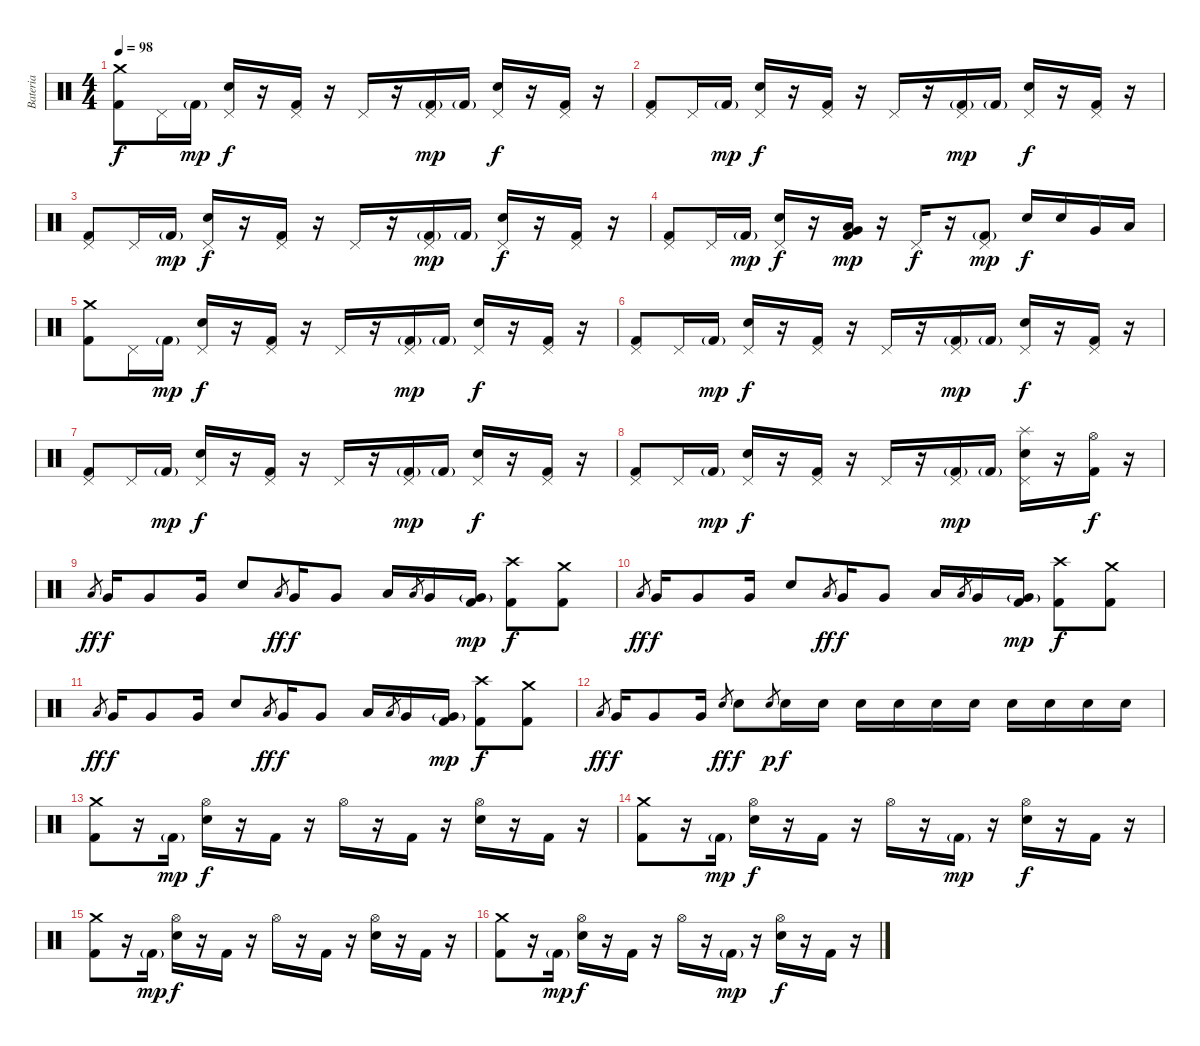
\track ("Bateria" "Bateria") {instrument percussion}
\staff {score}
\articulation defaults
\ts (4 4)
\tempo 98
\clef neutral
\ks c
("Crash medium (hit)" "Kick (hit) 2").8{dy f} "Pedal Hi-Hat (hit)".16 "Kick (hit) 2"{g}.16{dy mp} ("Pedal Hi-Hat (hit)" "Snare (hit) 2").16{dy f} r.16 ("Pedal Hi-Hat (hit)" "Kick (hit) 2").16 r.16 "Pedal Hi-Hat (hit)".16 r.16 ("Pedal Hi-Hat (hit)" "Kick (hit) 2"{g}).16{dy mp} "Kick (hit) 2"{g}.16 ("Pedal Hi-Hat (hit)" "Snare (hit) 2").16{dy f} r.16 ("Pedal Hi-Hat (hit)" "Kick (hit) 2").16 r.16 |
("Pedal Hi-Hat (hit)" "Kick (hit) 2").8 "Pedal Hi-Hat (hit)".16 "Kick (hit) 2"{g}.16{dy mp} ("Pedal Hi-Hat (hit)" "Snare (hit) 2").16{dy f} r.16 ("Pedal Hi-Hat (hit)" "Kick (hit) 2").16 r.16 "Pedal Hi-Hat (hit)".16 r.16 ("Pedal Hi-Hat (hit)" "Kick (hit) 2"{g}).16{dy mp} "Kick (hit) 2"{g}.16 ("Pedal Hi-Hat (hit)" "Snare (hit) 2").16{dy f} r.16 ("Pedal Hi-Hat (hit)" "Kick (hit) 2").16 r.16 |
("Pedal Hi-Hat (hit)" "Kick (hit) 2").8 "Pedal Hi-Hat (hit)".16 "Kick (hit) 2"{g}.16{dy mp} ("Pedal Hi-Hat (hit)" "Snare (hit) 2").16{dy f} r.16 ("Pedal Hi-Hat (hit)" "Kick (hit) 2").16 r.16 "Pedal Hi-Hat (hit)".16 r.16 ("Pedal Hi-Hat (hit)" "Kick (hit) 2"{g}).16{dy mp} "Kick (hit) 2"{g}.16 ("Pedal Hi-Hat (hit)" "Snare (hit) 2").16{dy f} r.16 ("Pedal Hi-Hat (hit)" "Kick (hit) 2").16 r.16 |
("Pedal Hi-Hat (hit)" "Kick (hit) 2").8 "Pedal Hi-Hat (hit)".16 "Kick (hit) 2"{g}.16{dy mp} ("Pedal Hi-Hat (hit)" "Snare (hit) 2").16{dy f} r.16 ("Very Low Tom (hit)" "Low Floor Tom (hit)" "Kick (hit) 2").16{dy mp} r.16 "Pedal Hi-Hat (hit)".16{dy f} r.16 ("Pedal Hi-Hat (hit)" "Kick (hit) 2"{g}).8{dy mp} "Snare (hit) 2".16{dy f} "Snare (hit) 2".16 "Very Low Tom (hit)".16 "Low Floor Tom (hit)".16 |
("Crash medium (hit)" "Kick (hit) 2").8 "Pedal Hi-Hat (hit)".16 "Kick (hit) 2"{g}.16{dy mp} ("Pedal Hi-Hat (hit)" "Snare (hit) 2").16{dy f} r.16 ("Pedal Hi-Hat (hit)" "Kick (hit) 2").16 r.16 "Pedal Hi-Hat (hit)".16 r.16 ("Pedal Hi-Hat (hit)" "Kick (hit) 2"{g}).16{dy mp} "Kick (hit) 2"{g}.16 ("Pedal Hi-Hat (hit)" "Snare (hit) 2").16{dy f} r.16 ("Pedal Hi-Hat (hit)" "Kick (hit) 2").16 r.16 |
("Pedal Hi-Hat (hit)" "Kick (hit) 2").8 "Pedal Hi-Hat (hit)".16 "Kick (hit) 2"{g}.16{dy mp} ("Pedal Hi-Hat (hit)" "Snare (hit) 2").16{dy f} r.16 ("Pedal Hi-Hat (hit)" "Kick (hit) 2").16 r.16 "Pedal Hi-Hat (hit)".16 r.16 ("Pedal Hi-Hat (hit)" "Kick (hit) 2"{g}).16{dy mp} "Kick (hit) 2"{g}.16 ("Pedal Hi-Hat (hit)" "Snare (hit) 2").16{dy f} r.16 ("Pedal Hi-Hat (hit)" "Kick (hit) 2").16 r.16 |
("Pedal Hi-Hat (hit)" "Kick (hit) 2").8 "Pedal Hi-Hat (hit)".16 "Kick (hit) 2"{g}.16{dy mp} ("Pedal Hi-Hat (hit)" "Snare (hit) 2").16{dy f} r.16 ("Pedal Hi-Hat (hit)" "Kick (hit) 2").16 r.16 "Pedal Hi-Hat (hit)".16 r.16 ("Pedal Hi-Hat (hit)" "Kick (hit) 2"{g}).16{dy mp} "Kick (hit) 2"{g}.16 ("Pedal Hi-Hat (hit)" "Snare (hit) 2").16{dy f} r.16 ("Pedal Hi-Hat (hit)" "Kick (hit) 2").16 r.16 |
("Pedal Hi-Hat (hit)" "Kick (hit) 2").8 "Pedal Hi-Hat (hit)".16 "Kick (hit) 2"{g}.16{dy mp} ("Pedal Hi-Hat (hit)" "Snare (hit) 2").16{dy f} r.16 ("Pedal Hi-Hat (hit)" "Kick (hit) 2").16 r.16 "Pedal Hi-Hat (hit)".16 r.16 ("Pedal Hi-Hat (hit)" "Kick (hit) 2"{g}).16{dy mp} "Kick (hit) 2"{g}.16 ("Splash (hit)" "Pedal Hi-Hat (hit)" "Snare (hit) 2").16 r.16 ("Hi-Hat (open)" "Kick (hit) 2").16{dy f} r.16 |
"Low Tom (hit)".8{gr dy ff} "Very Low Tom (hit)".16{dy f} "Very Low Tom (hit)".8 "Very Low Tom (hit)".16 "Snare (hit) 2".8 "Low Tom (hit)".8{gr dy ff} "Very Low Tom (hit)".16{dy f} "Very Low Tom (hit)".8 "Low Floor Tom (hit)".16 "Low Tom (hit)".8{gr} "Very Low Tom (hit)".16 ("Very Low Tom (hit)"{g} "Kick (hit) 2").16{dy mp} ("Crash high (hit)" "Kick (hit) 2").8{dy f} ("Crash medium (hit)" "Kick (hit) 2").8 |
"Low Tom (hit)".8{gr dy ff} "Very Low Tom (hit)".16{dy f} "Very Low Tom (hit)".8 "Very Low Tom (hit)".16 "Snare (hit) 2".8 "Low Tom (hit)".8{gr dy ff} "Very Low Tom (hit)".16{dy f} "Very Low Tom (hit)".8 "Low Floor Tom (hit)".16 "Low Tom (hit)".8{gr} "Very Low Tom (hit)".16 ("Very Low Tom (hit)"{g} "Kick (hit) 2").16{dy mp} ("Crash high (hit)" "Kick (hit) 2").8{dy f} ("Crash medium (hit)" "Kick (hit) 2").8 |
"Low Tom (hit)".8{gr dy ff} "Very Low Tom (hit)".16{dy f} "Very Low Tom (hit)".8 "Very Low Tom (hit)".16 "Snare (hit) 2".8 "Low Tom (hit)".8{gr dy ff} "Very Low Tom (hit)".16{dy f} "Very Low Tom (hit)".8 "Low Floor Tom (hit)".16 "Low Tom (hit)".8{gr} "Very Low Tom (hit)".16 ("Very Low Tom (hit)"{g} "Kick (hit) 2").16{dy mp} ("Crash high (hit)" "Kick (hit) 2").8{dy f} ("Crash medium (hit)" "Kick (hit) 2").8 |
"Low Tom (hit)".8{gr dy ff} "Very Low Tom (hit)".16{dy f} "Very Low Tom (hit)".8 "Very Low Tom (hit)".16 "Snare (hit) 2".8{gr dy ff} "Snare (hit) 2".8{dy f} "Snare (hit) 2".8{gr dy p} "Snare (hit) 2".16{dy f} "Snare (hit) 2".16 "Snare (hit) 2".16 "Snare (hit) 2".16 "Snare (hit) 2".16 "Snare (hit) 2".16 "Snare (hit) 2".16 "Snare (hit) 2".16 "Snare (hit) 2".16 "Snare (hit) 2".16 |
("Crash medium (hit)" "Kick (hit) 2").8 r.16 "Kick (hit) 2"{g}.16{dy mp} ("Hi-Hat (open)" "Snare (hit) 2").16{dy f} r.16 "Kick (hit) 2".16 r.16 "Hi-Hat (open)".16 r.16 "Kick (hit) 2".16 r.16 ("Hi-Hat (open)" "Snare (hit) 2").16 r.16 "Kick (hit) 2".16 r.16 |
("Crash medium (hit)" "Kick (hit) 2").8 r.16 "Kick (hit) 2"{g}.16{dy mp} ("Hi-Hat (open)" "Snare (hit) 2").16{dy f} r.16 "Kick (hit) 2".16 r.16 "Hi-Hat (open)".16 r.16 "Kick (hit) 2"{g}.16{dy mp} r.16 ("Hi-Hat (open)" "Snare (hit) 2").16{dy f} r.16 "Kick (hit) 2".16 r.16 |
("Crash medium (hit)" "Kick (hit) 2").8 r.16 "Kick (hit) 2"{g}.16{dy mp} ("Hi-Hat (open)" "Snare (hit) 2").16{dy f} r.16 "Kick (hit) 2".16 r.16 "Hi-Hat (open)".16 r.16 "Kick (hit) 2".16 r.16 ("Hi-Hat (open)" "Snare (hit) 2").16 r.16 "Kick (hit) 2".16 r.16 |
("Crash medium (hit)" "Kick (hit) 2").8 r.16 "Kick (hit) 2"{g}.16{dy mp} ("Hi-Hat (open)" "Snare (hit) 2").16{dy f} r.16 "Kick (hit) 2".16 r.16 "Hi-Hat (open)".16 r.16 "Kick (hit) 2"{g}.16{dy mp} r.16 ("Hi-Hat (open)" "Snare (hit) 2").16{dy f} r.16 "Kick (hit) 2".16 r.16
